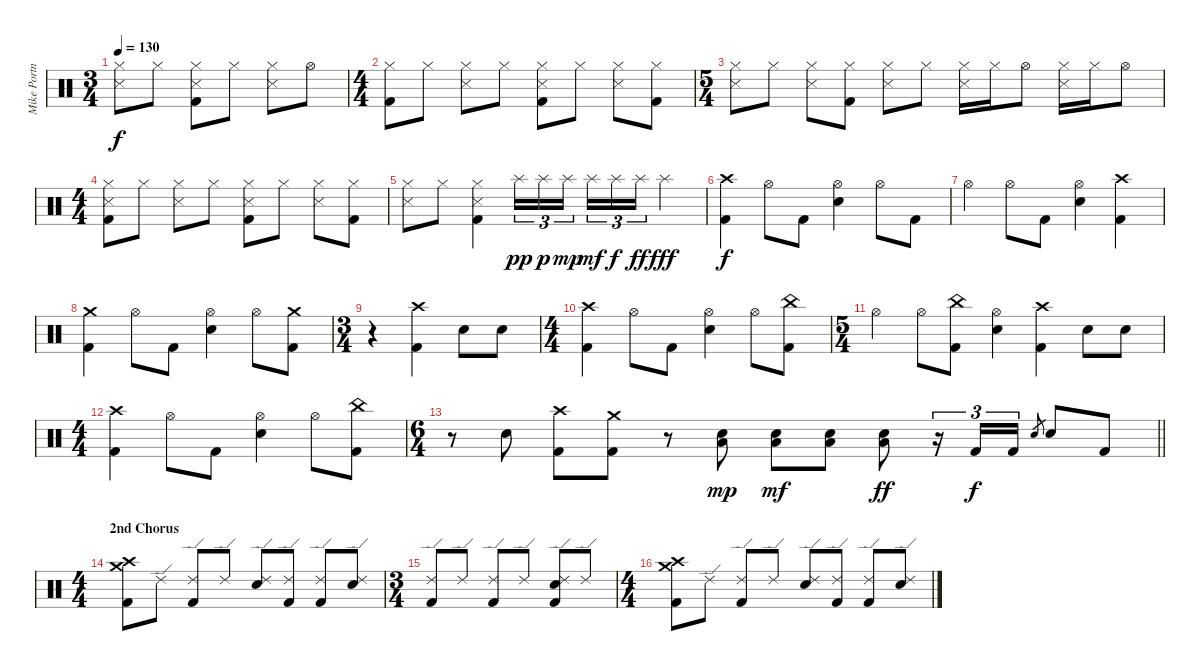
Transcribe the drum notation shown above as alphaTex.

\track ("Mike Portnoy" "Mike Portn") {instrument percussion}
\staff {score}
\articulation defaults
\ts (3 4)
\tempo 130
\clef neutral
\ks c
("Hi-Hat (closed)" "Snare (side stick) 3").8{dy f} "Hi-Hat (closed)".8 ("Hi-Hat (closed)" "Snare (side stick) 3" "Kick (hit) 2").8 "Hi-Hat (closed)".8 ("Hi-Hat (closed)" "Snare (side stick) 3").8 "Hi-Hat (open)".8 |
\ts (4 4)
("Hi-Hat (closed)" "Kick (hit) 2").8 "Hi-Hat (closed)".8 ("Hi-Hat (closed)" "Snare (side stick) 3").8 "Hi-Hat (closed)".8 ("Hi-Hat (closed)" "Snare (side stick) 3" "Kick (hit) 2").8 "Hi-Hat (closed)".8 ("Hi-Hat (closed)" "Snare (side stick) 3").8 ("Hi-Hat (closed)" "Kick (hit) 2").8 |
\ts (5 4)
("Hi-Hat (closed)" "Snare (side stick) 3").8 "Hi-Hat (closed)".8 ("Hi-Hat (closed)" "Snare (side stick) 3").8 ("Hi-Hat (closed)" "Kick (hit) 2").8 ("Hi-Hat (closed)" "Snare (side stick) 3").8 "Hi-Hat (closed)".8 ("Hi-Hat (closed)" "Snare (side stick) 3").16 "Hi-Hat (closed)".16 "Hi-Hat (open)".8 ("Hi-Hat (closed)" "Snare (side stick) 3").16 "Hi-Hat (closed)".16 "Hi-Hat (open)".8 |
\ts (4 4)
("Hi-Hat (closed)" "Snare (side stick) 3" "Kick (hit) 2").8 "Hi-Hat (closed)".8 ("Hi-Hat (closed)" "Snare (side stick) 3").8 "Hi-Hat (closed)".8 ("Hi-Hat (closed)" "Snare (side stick) 3" "Kick (hit) 2").8 "Hi-Hat (closed)".8 ("Hi-Hat (closed)" "Snare (side stick) 3").8 ("Hi-Hat (closed)" "Kick (hit) 2").8 |
("Hi-Hat (closed)" "Snare (side stick) 3").8 "Hi-Hat (closed)".8 ("Hi-Hat (closed)" "Snare (side stick) 3" "Kick (hit) 2").4 "Splash (hit)".16{tu (3 2) dy pp} "Splash (hit)".16{tu (3 2) dy p} "Splash (hit)".16{tu (3 2) dy mp beam splitsecondary} "Splash (hit)".16{tu (3 2) dy mf} "Splash (hit)".16{tu (3 2) dy f} "Splash (hit)".16{tu (3 2) dy ff} "Splash (hit)".4{dy fff} |
("Crash high (hit)" "Kick (hit) 2").4{dy f} "Hi-Hat (open)".8 "Kick (hit) 2".8 ("Hi-Hat (open)" "Electric Snare (hit)").4 "Hi-Hat (open)".8 "Kick (hit) 2".8 |
"Hi-Hat (open)".4 "Hi-Hat (open)".8 "Kick (hit) 2".8 ("Hi-Hat (open)" "Electric Snare (hit)").4 ("Crash high (hit)" "Kick (hit) 2").4 |
("Crash medium (hit)" "Kick (hit) 2").4 "Hi-Hat (open)".8 "Kick (hit) 2".8 ("Hi-Hat (open)" "Electric Snare (hit)").4 "Hi-Hat (open)".8 ("Crash medium (hit)" "Kick (hit) 2").8 |
\ts (3 4)
r.4 ("Crash high (hit)" "Kick (hit) 2").4 "Electric Snare (hit)".8 "Electric Snare (hit)".8 |
\ts (4 4)
("Crash high (hit)" "Kick (hit) 2").4 "Hi-Hat (open)".8 "Kick (hit) 2".8 ("Hi-Hat (open)" "Electric Snare (hit)").4 "Hi-Hat (open)".8 ("China (hit)" "Kick (hit) 2").8 |
\ts (5 4)
"Hi-Hat (open)".4 "Hi-Hat (open)".8 ("China (hit)" "Kick (hit) 2").8 ("Hi-Hat (open)" "Electric Snare (hit)").4 ("Crash high (hit)" "Kick (hit) 2").4 "Electric Snare (hit)".8 "Electric Snare (hit)".8 |
\ts (4 4)
("Crash high (hit)" "Kick (hit) 2").4 "Hi-Hat (open)".8 "Kick (hit) 2".8 ("Hi-Hat (open)" "Electric Snare (hit)").4 "Hi-Hat (open)".8 ("China (hit)" "Kick (hit) 2").8 |
\ts (6 4)
\barLineRight lightlight
r.8 "Electric Snare (hit)".8 ("Crash high (hit)" "Kick (hit) 2").8 ("Crash medium (hit)" "Kick (hit) 2").8 r.8 ("Electric Snare (hit)" "Low Floor Tom (hit)").8{dy mp} ("Electric Snare (hit)" "Low Floor Tom (hit)").8{dy mf} ("Electric Snare (hit)" "Low Floor Tom (hit)").8 ("Electric Snare (hit)" "Low Floor Tom (hit)").8{dy ff} r.16{tu (3 2)} "Kick (hit) 2".16{tu (3 2) dy f} "Kick (hit) 2".16{tu (3 2)} "Electric Snare (hit)".8{gr} "Electric Snare (hit)".8 "Kick (hit) 2".8 |
\ts (4 4)
\section ("" "2nd Chorus")
("Crash high (hit)" "Crash medium (hit)" "Kick (hit) 2").8 "Ride (edge) 2".8 ("Ride (edge) 2" "Kick (hit) 2").8 "Ride (edge) 2".8 ("Ride (edge) 2" "Snare (hit) 2").8 ("Ride (edge) 2" "Kick (hit) 2").8 ("Ride (edge) 2" "Kick (hit) 2").8 ("Ride (edge) 2" "Snare (hit) 2").8 |
\ts (3 4)
("Ride (edge) 2" "Kick (hit) 2").8 "Ride (edge) 2".8 ("Ride (edge) 2" "Kick (hit) 2").8 "Ride (edge) 2".8 ("Ride (edge) 2" "Snare (hit) 2" "Kick (hit) 2").8 "Ride (edge) 2".8 |
\ts (4 4)
("Crash high (hit)" "Crash medium (hit)" "Kick (hit) 2").8 "Ride (edge) 2".8 ("Ride (edge) 2" "Kick (hit) 2").8 "Ride (edge) 2".8 ("Ride (edge) 2" "Snare (hit) 2").8 ("Ride (edge) 2" "Kick (hit) 2").8 ("Ride (edge) 2" "Kick (hit) 2").8 ("Ride (edge) 2" "Snare (hit) 2").8
